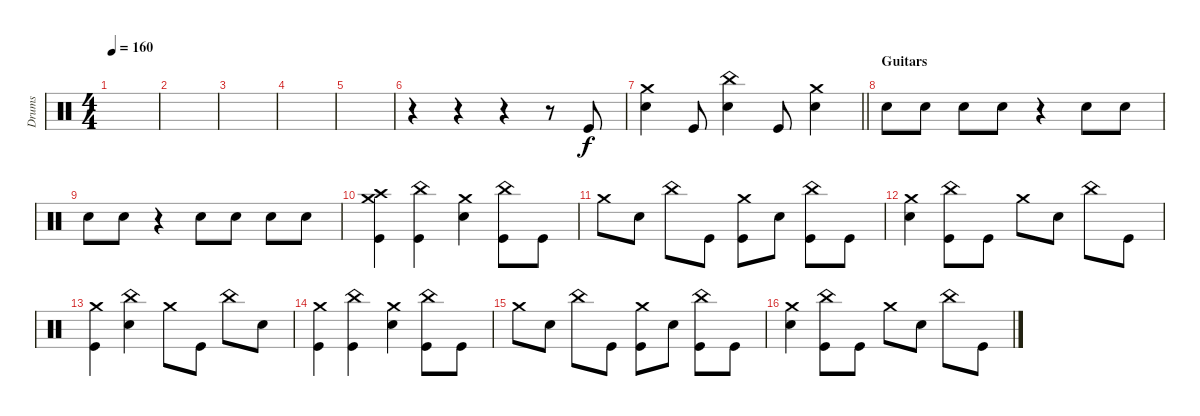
\track ("Drums" "Drums") {instrument percussion}
\staff {score}
\articulation defaults
\ts (4 4)
\tempo 160
\clef neutral
\ks c
|
|
|
|
|
r.4 r.4 r.4 r.8 "Kick (hit)".8 |
\barLineRight lightlight
("Electric Snare (hit)" "Crash medium (hit)").4 "Kick (hit)".8 ("Electric Snare (hit)" "China (hit)").4 "Kick (hit)".8 ("Electric Snare (hit)" "Crash medium (hit)").4 |
\section ("" "Guitars")
"Electric Snare (hit)".8 "Electric Snare (hit)".8 "Electric Snare (hit)".8 "Electric Snare (hit)".8 r.4 "Electric Snare (hit)".8 "Electric Snare (hit)".8 |
"Electric Snare (hit)".8 "Electric Snare (hit)".8 r.4 "Electric Snare (hit)".8 "Electric Snare (hit)".8 "Electric Snare (hit)".8 "Electric Snare (hit)".8 |
("Kick (hit)" "Crash high (hit)" "Crash medium (hit)").4 ("Kick (hit)" "China (hit)").4 ("Electric Snare (hit)" "Crash medium (hit)").4 ("Kick (hit)" "China (hit)").8 "Kick (hit)".8 |
"Crash medium (hit)".8 "Electric Snare (hit)".8 "China (hit)".8 "Kick (hit)".8 ("Kick (hit)" "Crash medium (hit)").8 "Electric Snare (hit)".8 ("Kick (hit)" "China (hit)").8 "Kick (hit)".8 |
("Electric Snare (hit)" "Crash medium (hit)").4 ("Kick (hit)" "China (hit)").8 "Kick (hit)".8 "Crash medium (hit)".8 "Electric Snare (hit)".8 "China (hit)".8 "Kick (hit)".8 |
("Kick (hit)" "Crash medium (hit)").4 ("Electric Snare (hit)" "China (hit)").4 "Crash medium (hit)".8 "Kick (hit)".8 "China (hit)".8 "Electric Snare (hit)".8 |
("Kick (hit)" "Crash medium (hit)").4 ("Kick (hit)" "China (hit)").4 ("Electric Snare (hit)" "Crash medium (hit)").4 ("Kick (hit)" "China (hit)").8 "Kick (hit)".8 |
"Crash medium (hit)".8 "Electric Snare (hit)".8 "China (hit)".8 "Kick (hit)".8 ("Kick (hit)" "Crash medium (hit)").8 "Electric Snare (hit)".8 ("Kick (hit)" "China (hit)").8 "Kick (hit)".8 |
("Electric Snare (hit)" "Crash medium (hit)").4 ("Kick (hit)" "China (hit)").8 "Kick (hit)".8 "Crash medium (hit)".8 "Electric Snare (hit)".8 "China (hit)".8 "Kick (hit)".8
